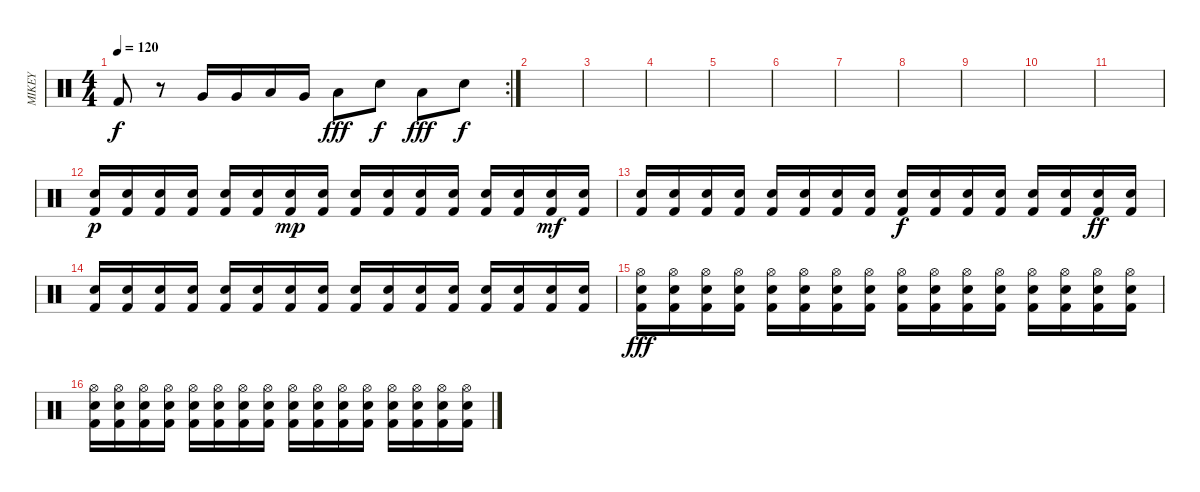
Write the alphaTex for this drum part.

\track ("MIKEY" "MIKEY") {instrument percussion}
\staff {score}
\articulation defaults
\rc 2
\ts (4 4)
\tempo 120
\clef neutral
\ks c "Kick (hit) 2".8{dy f}
r.8 "Very Low Tom (hit)".16 "Very Low Tom (hit)".16 "Low Tom (hit)".16 "Very Low Tom (hit)".16 "Low Floor Tom (hit)".8{dy fff} "Electric Snare (hit)".8{dy f} "Low Floor Tom (hit)".8{dy fff} "Electric Snare (hit)".8{dy f} |
|
|
|
|
|
|
|
|
|
|
("Kick (hit) 2" "Electric Snare (hit)").16{dy p} ("Kick (hit) 2" "Electric Snare (hit)").16 ("Kick (hit) 2" "Electric Snare (hit)").16 ("Kick (hit) 2" "Electric Snare (hit)").16 ("Kick (hit) 2" "Electric Snare (hit)").16 ("Kick (hit) 2" "Electric Snare (hit)").16 ("Kick (hit) 2" "Electric Snare (hit)").16{dy mp} ("Kick (hit) 2" "Electric Snare (hit)").16 ("Kick (hit) 2" "Electric Snare (hit)").16 ("Kick (hit) 2" "Electric Snare (hit)").16 ("Kick (hit) 2" "Electric Snare (hit)").16 ("Kick (hit) 2" "Electric Snare (hit)").16 ("Kick (hit) 2" "Electric Snare (hit)").16 ("Kick (hit) 2" "Electric Snare (hit)").16 ("Kick (hit) 2" "Electric Snare (hit)").16{dy mf} ("Kick (hit) 2" "Electric Snare (hit)").16 |
("Kick (hit) 2" "Electric Snare (hit)").16 ("Kick (hit) 2" "Electric Snare (hit)").16 ("Kick (hit) 2" "Electric Snare (hit)").16 ("Kick (hit) 2" "Electric Snare (hit)").16 ("Kick (hit) 2" "Electric Snare (hit)").16 ("Kick (hit) 2" "Electric Snare (hit)").16 ("Kick (hit) 2" "Electric Snare (hit)").16 ("Kick (hit) 2" "Electric Snare (hit)").16 ("Kick (hit) 2" "Electric Snare (hit)").16{dy f} ("Kick (hit) 2" "Electric Snare (hit)").16 ("Kick (hit) 2" "Electric Snare (hit)").16 ("Kick (hit) 2" "Electric Snare (hit)").16 ("Kick (hit) 2" "Electric Snare (hit)").16 ("Kick (hit) 2" "Electric Snare (hit)").16 ("Kick (hit) 2" "Electric Snare (hit)").16{dy ff} ("Kick (hit) 2" "Electric Snare (hit)").16 |
("Kick (hit) 2" "Electric Snare (hit)").16 ("Kick (hit) 2" "Electric Snare (hit)").16 ("Kick (hit) 2" "Electric Snare (hit)").16 ("Kick (hit) 2" "Electric Snare (hit)").16 ("Kick (hit) 2" "Electric Snare (hit)").16 ("Kick (hit) 2" "Electric Snare (hit)").16 ("Kick (hit) 2" "Electric Snare (hit)").16 ("Kick (hit) 2" "Electric Snare (hit)").16 ("Kick (hit) 2" "Electric Snare (hit)").16 ("Kick (hit) 2" "Electric Snare (hit)").16 ("Kick (hit) 2" "Electric Snare (hit)").16 ("Kick (hit) 2" "Electric Snare (hit)").16 ("Kick (hit) 2" "Electric Snare (hit)").16 ("Kick (hit) 2" "Electric Snare (hit)").16 ("Kick (hit) 2" "Electric Snare (hit)").16 ("Kick (hit) 2" "Electric Snare (hit)").16 |
("Hi-Hat (open)" "Kick (hit) 2" "Electric Snare (hit)").16{dy fff} ("Hi-Hat (open)" "Kick (hit) 2" "Electric Snare (hit)").16 ("Hi-Hat (open)" "Kick (hit) 2" "Electric Snare (hit)").16 ("Hi-Hat (open)" "Kick (hit) 2" "Electric Snare (hit)").16 ("Hi-Hat (open)" "Kick (hit) 2" "Electric Snare (hit)").16 ("Hi-Hat (open)" "Kick (hit) 2" "Electric Snare (hit)").16 ("Hi-Hat (open)" "Kick (hit) 2" "Electric Snare (hit)").16 ("Hi-Hat (open)" "Kick (hit) 2" "Electric Snare (hit)").16 ("Hi-Hat (open)" "Kick (hit) 2" "Electric Snare (hit)").16 ("Hi-Hat (open)" "Kick (hit) 2" "Electric Snare (hit)").16 ("Hi-Hat (open)" "Kick (hit) 2" "Electric Snare (hit)").16 ("Hi-Hat (open)" "Kick (hit) 2" "Electric Snare (hit)").16 ("Hi-Hat (open)" "Kick (hit) 2" "Electric Snare (hit)").16 ("Hi-Hat (open)" "Kick (hit) 2" "Electric Snare (hit)").16 ("Hi-Hat (open)" "Kick (hit) 2" "Electric Snare (hit)").16 ("Hi-Hat (open)" "Kick (hit) 2" "Electric Snare (hit)").16 |
("Hi-Hat (open)" "Kick (hit) 2" "Electric Snare (hit)").16 ("Hi-Hat (open)" "Kick (hit) 2" "Electric Snare (hit)").16 ("Hi-Hat (open)" "Kick (hit) 2" "Electric Snare (hit)").16 ("Hi-Hat (open)" "Kick (hit) 2" "Electric Snare (hit)").16 ("Hi-Hat (open)" "Kick (hit) 2" "Electric Snare (hit)").16 ("Hi-Hat (open)" "Kick (hit) 2" "Electric Snare (hit)").16 ("Hi-Hat (open)" "Kick (hit) 2" "Electric Snare (hit)").16 ("Hi-Hat (open)" "Kick (hit) 2" "Electric Snare (hit)").16 ("Hi-Hat (open)" "Kick (hit) 2" "Electric Snare (hit)").16 ("Hi-Hat (open)" "Kick (hit) 2" "Electric Snare (hit)").16 ("Hi-Hat (open)" "Kick (hit) 2" "Electric Snare (hit)").16 ("Hi-Hat (open)" "Kick (hit) 2" "Electric Snare (hit)").16 ("Hi-Hat (open)" "Kick (hit) 2" "Electric Snare (hit)").16 ("Hi-Hat (open)" "Kick (hit) 2" "Electric Snare (hit)").16 ("Hi-Hat (open)" "Kick (hit) 2" "Electric Snare (hit)").16 ("Hi-Hat (open)" "Kick (hit) 2" "Electric Snare (hit)").16
